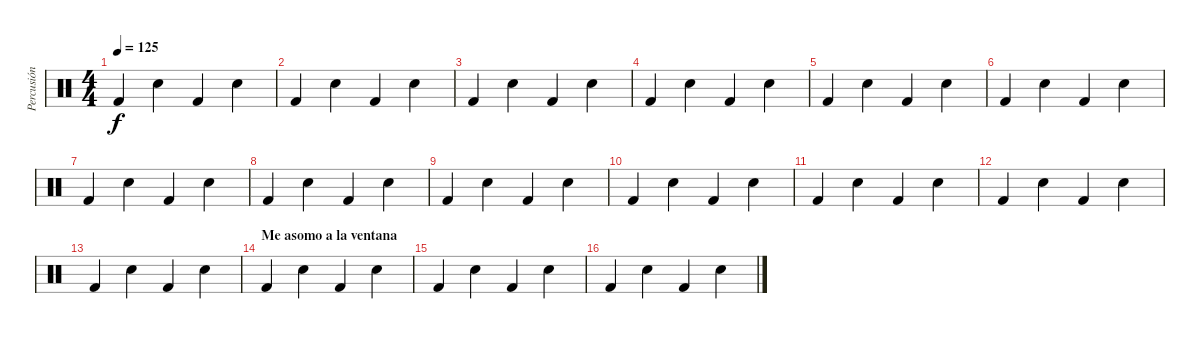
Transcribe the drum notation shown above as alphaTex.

\track ("Percusión" "Percusión") {instrument percussion}
\staff {score}
\articulation defaults
\ts (4 4)
\tempo 125
\clef neutral
\ks c "Kick (hit) 2".4{dy f} "Electric Snare (hit)".4 "Kick (hit) 2".4 "Electric Snare (hit)".4
|
"Kick (hit) 2".4 "Electric Snare (hit)".4 "Kick (hit) 2".4 "Electric Snare (hit)".4 |
"Kick (hit) 2".4 "Electric Snare (hit)".4 "Kick (hit) 2".4 "Electric Snare (hit)".4 |
"Kick (hit) 2".4 "Electric Snare (hit)".4 "Kick (hit) 2".4 "Electric Snare (hit)".4 |
"Kick (hit) 2".4 "Electric Snare (hit)".4 "Kick (hit) 2".4 "Electric Snare (hit)".4 |
"Kick (hit) 2".4 "Electric Snare (hit)".4 "Kick (hit) 2".4 "Electric Snare (hit)".4 |
"Kick (hit) 2".4 "Electric Snare (hit)".4 "Kick (hit) 2".4 "Electric Snare (hit)".4 |
"Kick (hit) 2".4 "Electric Snare (hit)".4 "Kick (hit) 2".4 "Electric Snare (hit)".4 |
"Kick (hit) 2".4 "Electric Snare (hit)".4 "Kick (hit) 2".4 "Electric Snare (hit)".4 |
"Kick (hit) 2".4 "Electric Snare (hit)".4 "Kick (hit) 2".4 "Electric Snare (hit)".4 |
"Kick (hit) 2".4 "Electric Snare (hit)".4 "Kick (hit) 2".4 "Electric Snare (hit)".4 |
"Kick (hit) 2".4 "Electric Snare (hit)".4 "Kick (hit) 2".4 "Electric Snare (hit)".4 |
"Kick (hit) 2".4 "Electric Snare (hit)".4 "Kick (hit) 2".4 "Electric Snare (hit)".4 |
\section ("" "Me asomo a la ventana")
"Kick (hit) 2".4 "Electric Snare (hit)".4 "Kick (hit) 2".4 "Electric Snare (hit)".4 |
"Kick (hit) 2".4 "Electric Snare (hit)".4 "Kick (hit) 2".4 "Electric Snare (hit)".4 |
"Kick (hit) 2".4 "Electric Snare (hit)".4 "Kick (hit) 2".4 "Electric Snare (hit)".4
